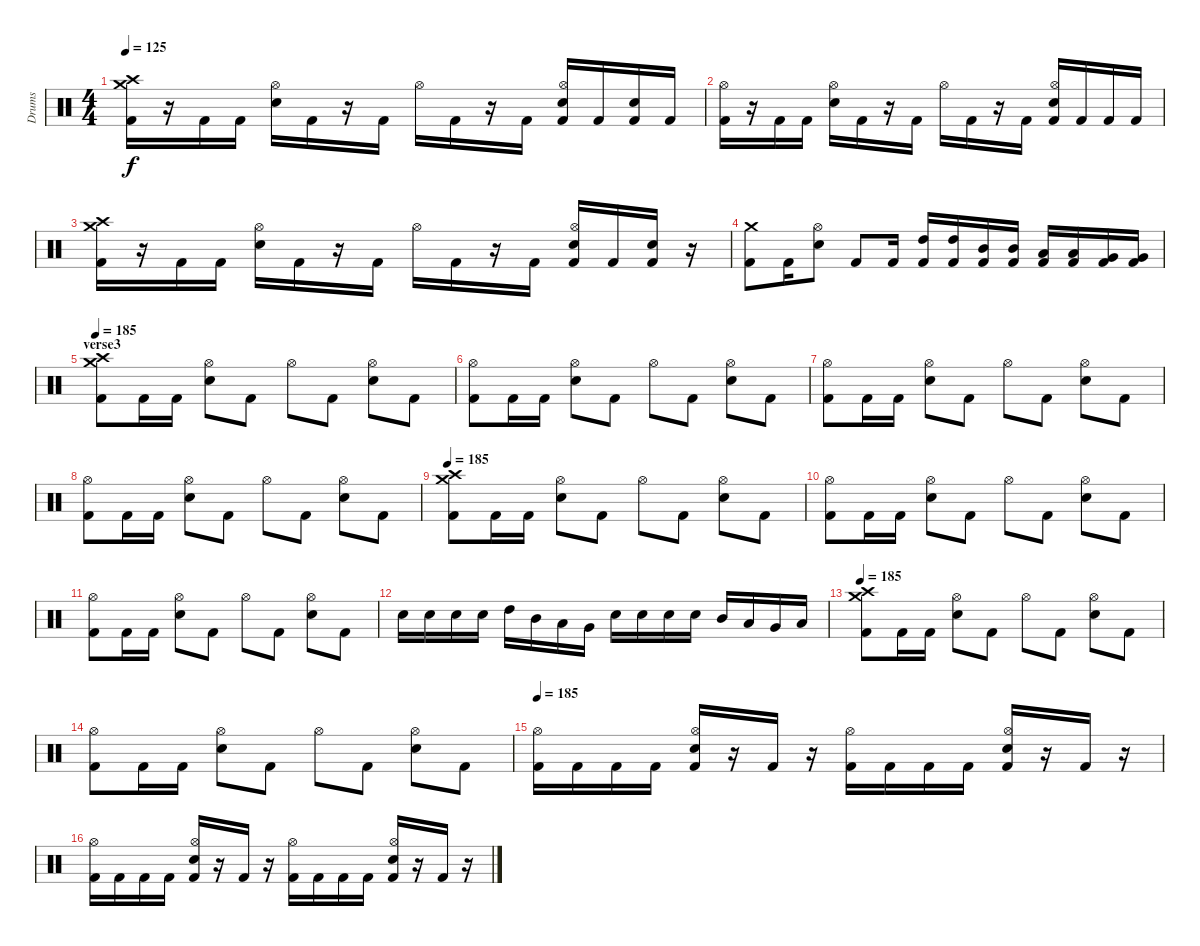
\track ("Drums" "Drums") {instrument percussion}
\staff {score}
\articulation defaults
\ts (4 4)
\tempo 125
\clef neutral
\ks c
("Crash medium (hit)" "Crash high (hit)" "Kick (hit) 2").16{dy f} r.16 "Kick (hit) 2".16 "Kick (hit) 2".16 ("Hi-Hat (open)" "Electric Snare (hit)").16 "Kick (hit) 2".16 r.16 "Kick (hit) 2".16 "Hi-Hat (open)".16 "Kick (hit) 2".16 r.16 "Kick (hit) 2".16 ("Hi-Hat (open)" "Electric Snare (hit)" "Kick (hit) 2").16 "Kick (hit) 2".16 ("Electric Snare (hit)" "Kick (hit) 2").16 "Kick (hit) 2".16 |
("Hi-Hat (open)" "Kick (hit) 2").16 r.16 "Kick (hit) 2".16 "Kick (hit) 2".16 ("Hi-Hat (open)" "Electric Snare (hit)").16 "Kick (hit) 2".16 r.16 "Kick (hit) 2".16 "Hi-Hat (open)".16 "Kick (hit) 2".16 r.16 "Kick (hit) 2".16 ("Hi-Hat (open)" "Electric Snare (hit)" "Kick (hit) 2").16 "Kick (hit) 2".16 "Kick (hit) 2".16 "Kick (hit) 2".16 |
("Crash medium (hit)" "Crash high (hit)" "Kick (hit) 2").16 r.16 "Kick (hit) 2".16 "Kick (hit) 2".16 ("Hi-Hat (open)" "Electric Snare (hit)").16 "Kick (hit) 2".16 r.16 "Kick (hit) 2".16 "Hi-Hat (open)".16 "Kick (hit) 2".16 r.16 "Kick (hit) 2".16 ("Hi-Hat (open)" "Electric Snare (hit)" "Kick (hit) 2").16 "Kick (hit) 2".16 ("Electric Snare (hit)" "Kick (hit) 2").16 r.16 |
("Crash medium (hit)" "Kick (hit) 2").8 "Kick (hit) 2".16 ("Hi-Hat (open)" "Electric Snare (hit)").8 "Kick (hit) 2".8 "Kick (hit) 2".16 ("High Tom (hit)" "Kick (hit) 2").16 ("High Tom (hit)" "Kick (hit) 2").16 ("Mid Tom (hit)" "Kick (hit) 2").16 ("Mid Tom (hit)" "Kick (hit) 2").16 ("Low Tom (hit)" "Kick (hit) 2").16 ("Low Tom (hit)" "Kick (hit) 2").16 ("Very Low Tom (hit)" "Kick (hit) 2").16 ("Very Low Tom (hit)" "Kick (hit) 2").16 |
\section ("" "verse3")
\tempo 185
("Crash medium (hit)" "Crash high (hit)" "Kick (hit) 2").8 "Kick (hit) 2".16 "Kick (hit) 2".16 ("Hi-Hat (open)" "Electric Snare (hit)").8 "Kick (hit) 2".8 "Hi-Hat (open)".8 "Kick (hit) 2".8 ("Hi-Hat (open)" "Electric Snare (hit)").8 "Kick (hit) 2".8 |
("Hi-Hat (open)" "Kick (hit) 2").8 "Kick (hit) 2".16 "Kick (hit) 2".16 ("Hi-Hat (open)" "Electric Snare (hit)").8 "Kick (hit) 2".8 "Hi-Hat (open)".8 "Kick (hit) 2".8 ("Hi-Hat (open)" "Electric Snare (hit)").8 "Kick (hit) 2".8 |
("Hi-Hat (open)" "Kick (hit) 2").8 "Kick (hit) 2".16 "Kick (hit) 2".16 ("Hi-Hat (open)" "Electric Snare (hit)").8 "Kick (hit) 2".8 "Hi-Hat (open)".8 "Kick (hit) 2".8 ("Hi-Hat (open)" "Electric Snare (hit)").8 "Kick (hit) 2".8 |
("Hi-Hat (open)" "Kick (hit) 2").8 "Kick (hit) 2".16 "Kick (hit) 2".16 ("Hi-Hat (open)" "Electric Snare (hit)").8 "Kick (hit) 2".8 "Hi-Hat (open)".8 "Kick (hit) 2".8 ("Hi-Hat (open)" "Electric Snare (hit)").8 "Kick (hit) 2".8 |
\tempo 185
("Crash medium (hit)" "Crash high (hit)" "Kick (hit) 2").8 "Kick (hit) 2".16 "Kick (hit) 2".16 ("Hi-Hat (open)" "Electric Snare (hit)").8 "Kick (hit) 2".8 "Hi-Hat (open)".8 "Kick (hit) 2".8 ("Hi-Hat (open)" "Electric Snare (hit)").8 "Kick (hit) 2".8 |
("Hi-Hat (open)" "Kick (hit) 2").8 "Kick (hit) 2".16 "Kick (hit) 2".16 ("Hi-Hat (open)" "Electric Snare (hit)").8 "Kick (hit) 2".8 "Hi-Hat (open)".8 "Kick (hit) 2".8 ("Hi-Hat (open)" "Electric Snare (hit)").8 "Kick (hit) 2".8 |
("Hi-Hat (open)" "Kick (hit) 2").8 "Kick (hit) 2".16 "Kick (hit) 2".16 ("Hi-Hat (open)" "Electric Snare (hit)").8 "Kick (hit) 2".8 "Hi-Hat (open)".8 "Kick (hit) 2".8 ("Hi-Hat (open)" "Electric Snare (hit)").8 "Kick (hit) 2".8 |
"Electric Snare (hit)".16 "Electric Snare (hit)".16 "Electric Snare (hit)".16 "Electric Snare (hit)".16 "High Tom (hit)".16 "Mid Tom (hit)".16 "Low Tom (hit)".16 "Very Low Tom (hit)".16 "Electric Snare (hit)".16 "Electric Snare (hit)".16 "Electric Snare (hit)".16 "Electric Snare (hit)".16 "Mid Tom (hit)".16 "Low Tom (hit)".16 "Very Low Tom (hit)".16 "Low Floor Tom (hit)".16 |
\tempo 185
("Crash medium (hit)" "Crash high (hit)" "Kick (hit) 2").8 "Kick (hit) 2".16 "Kick (hit) 2".16 ("Hi-Hat (open)" "Electric Snare (hit)").8 "Kick (hit) 2".8 "Hi-Hat (open)".8 "Kick (hit) 2".8 ("Hi-Hat (open)" "Electric Snare (hit)").8 "Kick (hit) 2".8 |
("Hi-Hat (open)" "Kick (hit) 2").8 "Kick (hit) 2".16 "Kick (hit) 2".16 ("Hi-Hat (open)" "Electric Snare (hit)").8 "Kick (hit) 2".8 "Hi-Hat (open)".8 "Kick (hit) 2".8 ("Hi-Hat (open)" "Electric Snare (hit)").8 "Kick (hit) 2".8 |
\tempo 185
("Hi-Hat (open)" "Kick (hit) 2").16 "Kick (hit) 2".16 "Kick (hit) 2".16 "Kick (hit) 2".16 ("Hi-Hat (open)" "Electric Snare (hit)" "Kick (hit) 2").16 r.16 "Kick (hit) 2".16 r.16 ("Hi-Hat (open)" "Kick (hit) 2").16 "Kick (hit) 2".16 "Kick (hit) 2".16 "Kick (hit) 2".16 ("Hi-Hat (open)" "Electric Snare (hit)" "Kick (hit) 2").16 r.16 "Kick (hit) 2".16 r.16 |
("Hi-Hat (open)" "Kick (hit) 2").16 "Kick (hit) 2".16 "Kick (hit) 2".16 "Kick (hit) 2".16 ("Hi-Hat (open)" "Electric Snare (hit)" "Kick (hit) 2").16 r.16 "Kick (hit) 2".16 r.16 ("Hi-Hat (open)" "Kick (hit) 2").16 "Kick (hit) 2".16 "Kick (hit) 2".16 "Kick (hit) 2".16 ("Hi-Hat (open)" "Electric Snare (hit)" "Kick (hit) 2").16 r.16 "Kick (hit) 2".16 r.16
